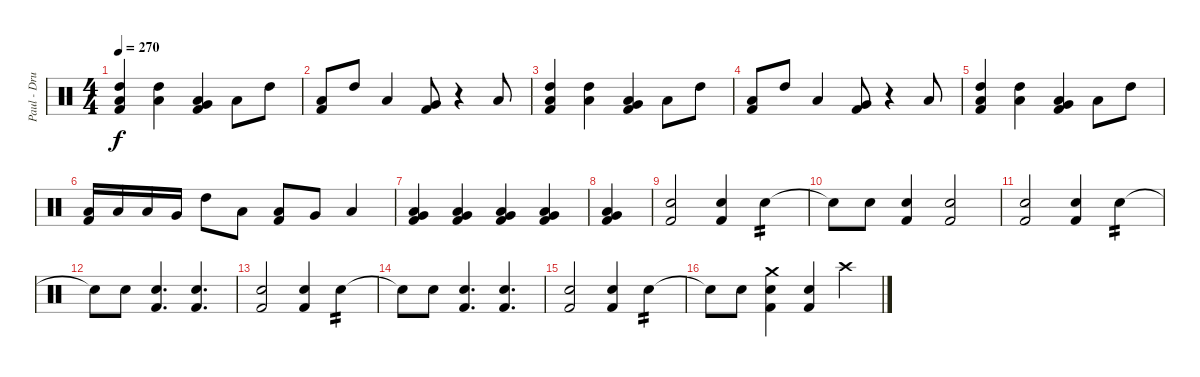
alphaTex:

\track ("Paul - Drums" "Paul - Dru") {instrument percussion}
\staff {score}
\articulation defaults
\ts (4 4)
\tempo 270
\clef neutral
\ks c
("Low Tom (hit)" "High Tom (hit)" "Kick (hit) 2").4{dy f} ("Low Tom (hit)" "High Tom (hit)").4 ("Very Low Tom (hit)" "Low Tom (hit)" "Kick (hit) 2").4 "Low Tom (hit)".8 "High Tom (hit)".8 |
("Low Tom (hit)" "Kick (hit) 2").8 "High Tom (hit)".8 "Low Tom (hit)".4 ("Very Low Tom (hit)" "Kick (hit) 2").8 r.4 "Low Tom (hit)".8 |
("Low Tom (hit)" "High Tom (hit)" "Kick (hit) 2").4 ("Low Tom (hit)" "High Tom (hit)").4 ("Very Low Tom (hit)" "Low Tom (hit)" "Kick (hit) 2").4 "Low Tom (hit)".8 "High Tom (hit)".8 |
("Low Tom (hit)" "Kick (hit) 2").8 "High Tom (hit)".8 "Low Tom (hit)".4 ("Very Low Tom (hit)" "Kick (hit) 2").8 r.4 "Low Tom (hit)".8 |
("Low Tom (hit)" "High Tom (hit)" "Kick (hit) 2").4 ("Low Tom (hit)" "High Tom (hit)").4 ("Very Low Tom (hit)" "Low Tom (hit)" "Kick (hit) 2").4 "Low Tom (hit)".8 "High Tom (hit)".8 |
("Low Tom (hit)" "Kick (hit) 2").16 "Low Tom (hit)".16 "Low Tom (hit)".16 "Very Low Tom (hit)".16 "High Tom (hit)".8 "Low Tom (hit)".8 ("Low Tom (hit)" "Kick (hit) 2").8 "Very Low Tom (hit)".8 "Low Floor Tom (hit)".4 |
("Low Tom (hit)" "Very Low Tom (hit)" "Kick (hit) 2").4 ("Low Tom (hit)" "Very Low Tom (hit)" "Kick (hit) 2").4 ("Low Tom (hit)" "Very Low Tom (hit)" "Kick (hit) 2").4 ("Low Tom (hit)" "Very Low Tom (hit)" "Kick (hit) 2").4 |
("Low Tom (hit)" "Very Low Tom (hit)" "Kick (hit) 2").4 |
("Electric Snare (hit)" "Kick (hit) 2").2 ("Electric Snare (hit)" "Kick (hit) 2").4 "Electric Snare (hit)".4{tp 2} |
"Snare (hit)"{t}.8 "Electric Snare (hit)".8 ("Electric Snare (hit)" "Kick (hit) 2").4 ("Electric Snare (hit)" "Kick (hit) 2").2 |
("Electric Snare (hit)" "Kick (hit) 2").2 ("Electric Snare (hit)" "Kick (hit) 2").4 "Electric Snare (hit)".4{tp 2} |
"Snare (hit)"{t}.8 "Electric Snare (hit)".8 ("Electric Snare (hit)" "Kick (hit) 2").4{d} ("Electric Snare (hit)" "Kick (hit) 2").4{d} |
("Electric Snare (hit)" "Kick (hit) 2").2 ("Electric Snare (hit)" "Kick (hit) 2").4 "Electric Snare (hit)".4{tp 2} |
"Electric Snare (hit)"{t}.8 "Electric Snare (hit)".8 ("Electric Snare (hit)" "Kick (hit) 2").4{d} ("Electric Snare (hit)" "Kick (hit) 2").4{d} |
("Electric Snare (hit)" "Kick (hit) 2").2 ("Electric Snare (hit)" "Kick (hit) 2").4 "Electric Snare (hit)".4{tp 2} |
"Snare (hit)"{t}.8 "Electric Snare (hit)".8 ("Crash medium (hit)" "Electric Snare (hit)" "Kick (hit) 2").4 ("Electric Snare (hit)" "Kick (hit) 2").4 "Crash high (hit)".4{volume 0}
